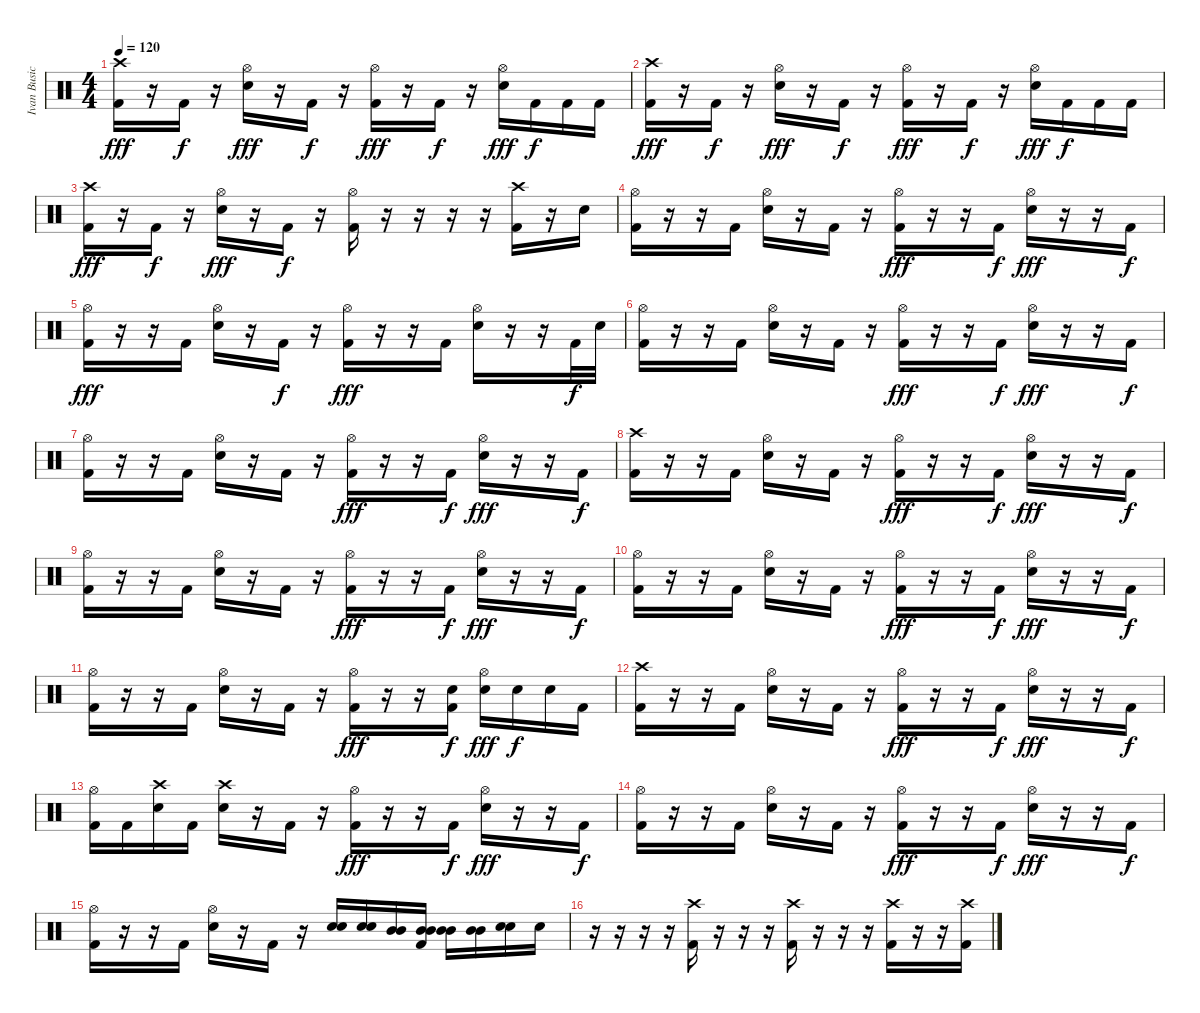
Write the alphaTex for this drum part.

\track ("Ivan Busic" "Ivan Busic") {instrument percussion}
\staff {score}
\articulation defaults
\ts (4 4)
\tempo 120
\clef neutral
\ks c
("Crash high (hit)" "Kick (hit) 2").16{dy fff} r.16 "Kick (hit) 2".16{dy f} r.16 ("Hi-Hat (open)" "Electric Snare (hit)").16{dy fff} r.16 "Kick (hit) 2".16{dy f} r.16 ("Hi-Hat (open)" "Kick (hit) 2").16{dy fff} r.16 "Kick (hit) 2".16{dy f} r.16 ("Hi-Hat (open)" "Electric Snare (hit)").16{dy fff} "Kick (hit) 2".16{dy f} "Kick (hit) 2".16 "Kick (hit) 2".16 |
("Crash high (hit)" "Kick (hit) 2").16{dy fff} r.16 "Kick (hit) 2".16{dy f} r.16 ("Hi-Hat (open)" "Electric Snare (hit)").16{dy fff} r.16 "Kick (hit) 2".16{dy f} r.16 ("Hi-Hat (open)" "Kick (hit) 2").16{dy fff} r.16 "Kick (hit) 2".16{dy f} r.16 ("Hi-Hat (open)" "Electric Snare (hit)").16{dy fff} "Kick (hit) 2".16{dy f} "Kick (hit) 2".16 "Kick (hit) 2".16 |
("Crash high (hit)" "Kick (hit) 2").16{dy fff} r.16 "Kick (hit) 2".16{dy f} r.16 ("Hi-Hat (open)" "Electric Snare (hit)").16{dy fff} r.16 "Kick (hit) 2".16{dy f} r.16 ("Hi-Hat (open)" "Kick (hit) 2").16 r.16 r.16 r.16 r.16 ("Crash high (hit)" "Kick (hit) 2").16 r.16 "Snare (hit)".16 |
("Hi-Hat (open)" "Kick (hit) 2").16 r.16 r.16 "Kick (hit) 2".16 ("Hi-Hat (open)" "Electric Snare (hit)").16 r.16 "Kick (hit) 2".16 r.16 ("Hi-Hat (open)" "Kick (hit) 2").16{dy fff} r.16 r.16 "Kick (hit) 2".16{dy f} ("Hi-Hat (open)" "Electric Snare (hit)").16{dy fff} r.16 r.16 "Kick (hit) 2".16{dy f} |
("Hi-Hat (open)" "Kick (hit) 2").16{dy fff} r.16 r.16 "Kick (hit) 2".16 ("Hi-Hat (open)" "Electric Snare (hit)").16 r.16 "Kick (hit) 2".16{dy f} r.16 ("Hi-Hat (open)" "Kick (hit) 2").16{dy fff} r.16 r.16 "Kick (hit) 2".16 ("Hi-Hat (open)" "Electric Snare (hit)").16 r.16 r.16 "Kick (hit) 2".32{dy f} "Snare (hit)".32 |
("Hi-Hat (open)" "Kick (hit) 2").16 r.16 r.16 "Kick (hit) 2".16 ("Hi-Hat (open)" "Electric Snare (hit)").16 r.16 "Kick (hit) 2".16 r.16 ("Hi-Hat (open)" "Kick (hit) 2").16{dy fff} r.16 r.16 "Kick (hit) 2".16{dy f} ("Hi-Hat (open)" "Electric Snare (hit)").16{dy fff} r.16 r.16 "Kick (hit) 2".16{dy f} |
("Hi-Hat (open)" "Kick (hit) 2").16 r.16 r.16 "Kick (hit) 2".16 ("Hi-Hat (open)" "Electric Snare (hit)").16 r.16 "Kick (hit) 2".16 r.16 ("Hi-Hat (open)" "Kick (hit) 2").16{dy fff} r.16 r.16 "Kick (hit) 2".16{dy f} ("Hi-Hat (open)" "Electric Snare (hit)").16{dy fff} r.16 r.16 "Kick (hit) 2".16{dy f} |
("Crash high (hit)" "Kick (hit) 2").16 r.16 r.16 "Kick (hit) 2".16 ("Hi-Hat (open)" "Electric Snare (hit)").16 r.16 "Kick (hit) 2".16 r.16 ("Hi-Hat (open)" "Kick (hit) 2").16{dy fff} r.16 r.16 "Kick (hit) 2".16{dy f} ("Hi-Hat (open)" "Electric Snare (hit)").16{dy fff} r.16 r.16 "Kick (hit) 2".16{dy f} |
("Hi-Hat (open)" "Kick (hit) 2").16 r.16 r.16 "Kick (hit) 2".16 ("Hi-Hat (open)" "Electric Snare (hit)").16 r.16 "Kick (hit) 2".16 r.16 ("Hi-Hat (open)" "Kick (hit) 2").16{dy fff} r.16 r.16 "Kick (hit) 2".16{dy f} ("Hi-Hat (open)" "Electric Snare (hit)").16{dy fff} r.16 r.16 "Kick (hit) 2".16{dy f} |
("Hi-Hat (open)" "Kick (hit) 2").16 r.16 r.16 "Kick (hit) 2".16 ("Hi-Hat (open)" "Electric Snare (hit)").16 r.16 "Kick (hit) 2".16 r.16 ("Hi-Hat (open)" "Kick (hit) 2").16{dy fff} r.16 r.16 "Kick (hit) 2".16{dy f} ("Hi-Hat (open)" "Electric Snare (hit)").16{dy fff} r.16 r.16 "Kick (hit) 2".16{dy f} |
("Hi-Hat (open)" "Kick (hit) 2").16 r.16 r.16 "Kick (hit) 2".16 ("Hi-Hat (open)" "Electric Snare (hit)").16 r.16 "Kick (hit) 2".16 r.16 ("Hi-Hat (open)" "Kick (hit) 2").16{dy fff} r.16 r.16 ("Electric Snare (hit)" "Kick (hit) 2").16{dy f} ("Hi-Hat (open)" "Electric Snare (hit)").16{dy fff} "Electric Snare (hit)".16{dy f} "Electric Snare (hit)".16 "Kick (hit) 2".16 |
("Crash high (hit)" "Kick (hit) 2").16 r.16 r.16 "Kick (hit) 2".16 ("Hi-Hat (open)" "Electric Snare (hit)").16 r.16 "Kick (hit) 2".16 r.16 ("Hi-Hat (open)" "Kick (hit) 2").16{dy fff} r.16 r.16 "Kick (hit) 2".16{dy f} ("Hi-Hat (open)" "Electric Snare (hit)").16{dy fff} r.16 r.16 "Kick (hit) 2".16{dy f} |
("Hi-Hat (open)" "Kick (hit) 2").16 "Kick (hit) 2".16 ("Crash high (hit)" "Electric Snare (hit)").16 "Kick (hit) 2".16 ("Crash high (hit)" "Electric Snare (hit)").16 r.16 "Kick (hit) 2".16 r.16 ("Hi-Hat (open)" "Kick (hit) 2").16{dy fff} r.16 r.16 "Kick (hit) 2".16{dy f} ("Hi-Hat (open)" "Electric Snare (hit)").16{dy fff} r.16 r.16 "Kick (hit) 2".16{dy f} |
("Hi-Hat (open)" "Kick (hit) 2").16 r.16 r.16 "Kick (hit) 2".16 ("Hi-Hat (open)" "Electric Snare (hit)").16 r.16 "Kick (hit) 2".16 r.16 ("Hi-Hat (open)" "Kick (hit) 2").16{dy fff} r.16 r.16 "Kick (hit) 2".16{dy f} ("Hi-Hat (open)" "Electric Snare (hit)").16{dy fff} r.16 r.16 "Kick (hit) 2".16{dy f} |
("Hi-Hat (open)" "Kick (hit) 2").16 r.16 r.16 "Kick (hit) 2".16 ("Hi-Hat (open)" "Electric Snare (hit)").16 r.16 "Kick (hit) 2".16 r.16 ("Electric Snare (hit)" "Electric Snare (hit)").16 ("Electric Snare (hit)" "Electric Snare (hit)").16 ("Mid Tom (hit)" "Mid Tom (hit)").16 ("Mid Tom (hit)" "Mid Tom (hit)" "Kick (hit) 2").16 ("Mid Tom (hit)" "Mid Tom (hit)").16 ("Mid Tom (hit)" "Mid Tom (hit)").16 ("Electric Snare (hit)" "Electric Snare (hit)").16 "Snare (hit)".16 |
r.16 r.16 r.16 r.16 ("Crash high (hit)" "Kick (hit) 2").16 r.16 r.16 r.16 ("Crash high (hit)" "Kick (hit) 2").16 r.16 r.16 r.16 ("Crash high (hit)" "Kick (hit) 2").16 r.16 r.16 ("Crash high (hit)" "Kick (hit) 2").16
